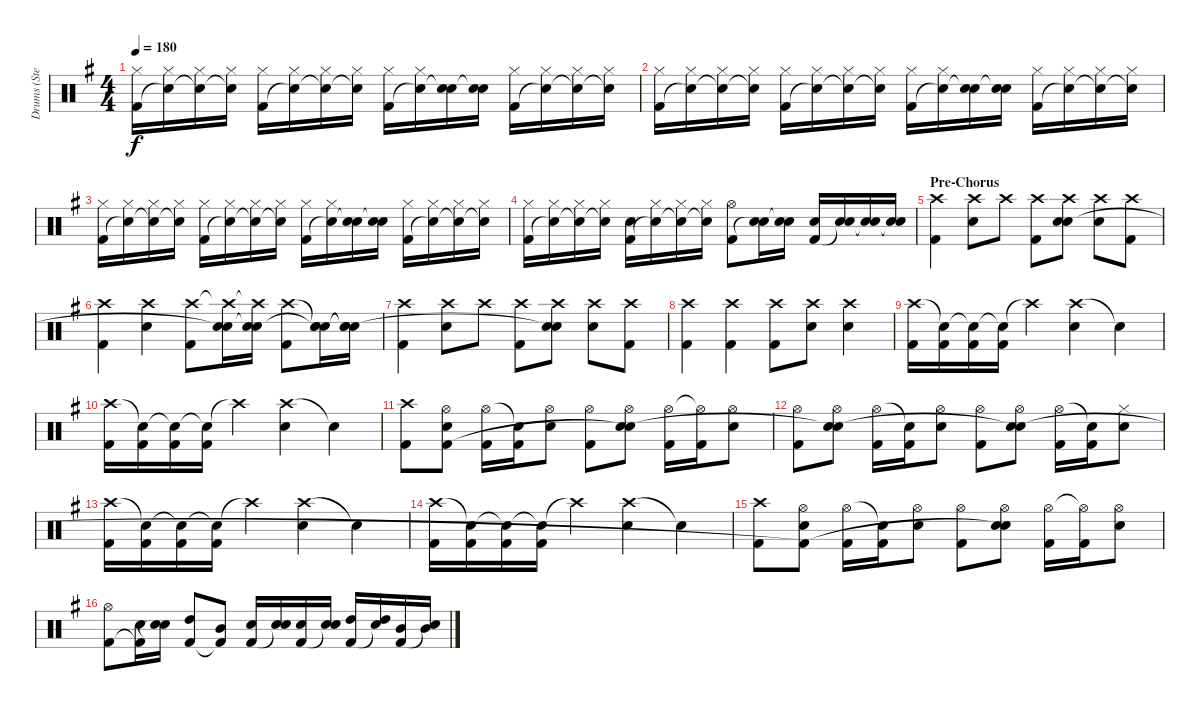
\track ("Drums (Stevo)" "Drums (Ste") {instrument percussion}
\staff {score}
\articulation defaults
\ts (4 4)
\tempo 180
\clef neutral
\ks g
("Hi-Hat (closed)" "Kick (hit) 2").16{dy f} ("Hi-Hat (closed)" "Snare (hit)"{t}).16 ("Hi-Hat (closed)" "Snare (hit)"{t}).16 ("Hi-Hat (closed)" "Snare (hit)"{t}).16 ("Hi-Hat (closed)" "Kick (hit) 2").16 ("Hi-Hat (closed)" "Snare (hit)"{t}).16 ("Hi-Hat (closed)" "Snare (hit)"{t}).16 ("Hi-Hat (closed)" "Snare (hit)"{t}).16 ("Hi-Hat (closed)" "Kick (hit) 2").16 ("Hi-Hat (closed)" "Snare (hit)"{t}).16 ("Snare (hit) 2" "Snare (hit)"{t}).16 ("Snare (hit) 2" "Snare (hit)"{t}).16 ("Hi-Hat (closed)" "Kick (hit) 2").16 ("Hi-Hat (closed)" "Snare (hit)"{t}).16 ("Hi-Hat (closed)" "Snare (hit)"{t}).16 ("Hi-Hat (closed)" "Snare (hit)"{t}).16 |
("Hi-Hat (closed)" "Kick (hit) 2").16 ("Hi-Hat (closed)" "Snare (hit)"{t}).16 ("Hi-Hat (closed)" "Snare (hit)"{t}).16 ("Hi-Hat (closed)" "Snare (hit)"{t}).16 ("Hi-Hat (closed)" "Kick (hit) 2").16 ("Hi-Hat (closed)" "Snare (hit)"{t}).16 ("Hi-Hat (closed)" "Snare (hit)"{t}).16 ("Hi-Hat (closed)" "Snare (hit)"{t}).16 ("Hi-Hat (closed)" "Kick (hit) 2").16 ("Hi-Hat (closed)" "Snare (hit)"{t}).16 ("Snare (hit) 2" "Snare (hit)"{t}).16 ("Snare (hit) 2" "Snare (hit)"{t}).16 ("Hi-Hat (closed)" "Kick (hit) 2").16 ("Hi-Hat (closed)" "Snare (hit)"{t}).16 ("Hi-Hat (closed)" "Snare (hit)"{t}).16 ("Hi-Hat (closed)" "Snare (hit)"{t}).16 |
("Hi-Hat (closed)" "Kick (hit) 2").16 ("Hi-Hat (closed)" "Snare (hit)"{t}).16 ("Hi-Hat (closed)" "Snare (hit)"{t}).16 ("Hi-Hat (closed)" "Snare (hit)"{t}).16 ("Hi-Hat (closed)" "Kick (hit) 2").16 ("Hi-Hat (closed)" "Snare (hit)"{t}).16 ("Hi-Hat (closed)" "Snare (hit)"{t}).16 ("Hi-Hat (closed)" "Snare (hit)"{t}).16 ("Hi-Hat (closed)" "Kick (hit) 2").16 ("Hi-Hat (closed)" "Snare (hit)"{t}).16 ("Snare (hit) 2" "Snare (hit)"{t}).16 ("Snare (hit) 2" "Snare (hit)"{t}).16 ("Hi-Hat (closed)" "Kick (hit) 2").16 ("Hi-Hat (closed)" "Snare (hit)"{t}).16 ("Hi-Hat (closed)" "Snare (hit)"{t}).16 ("Hi-Hat (closed)" "Snare (hit)"{t}).16 |
("Hi-Hat (closed)" "Kick (hit) 2").16 ("Hi-Hat (closed)" "Snare (hit)"{t}).16 ("Hi-Hat (closed)" "Snare (hit)"{t}).16 ("Hi-Hat (closed)" "Snare (hit)"{t}).16 ("Snare (hit) 2" "Kick (hit) 2").16 ("Hi-Hat (closed)" "Snare (hit)"{t}).16 ("Hi-Hat (closed)" "Snare (hit)"{t}).16 ("Hi-Hat (closed)" "Snare (hit)"{t}).16 ("Hi-Hat (open)" "Kick (hit) 2").8 ("Snare (hit) 2" "Snare (hit)"{t}).16 ("Snare (hit) 2" "Snare (hit)"{t}).16 ("Snare (hit) 2" "Kick (hit) 2").16 ("Snare (hit) 2" "Snare (hit)"{t}).16 ("Snare (hit) 2" "Snare (hit)"{t}).16 ("Snare (hit) 2" "Snare (hit)"{t}).16 |
\section ("" "Pre-Chorus")
("Crash high (hit)" "Kick (hit) 2").4 ("Crash high (hit)" "Snare (hit) 2").8 "Crash high (hit)".8 ("Crash high (hit)" "Kick (hit) 2").8 ("Crash high (hit)" "Snare (hit) 2" "Snare (hit)").8 ("Crash high (hit)" "Snare (hit) 2").8 ("Crash high (hit)" "Kick (hit) 2").8 |
("Crash high (hit)" "Kick (hit) 2").4 ("Crash high (hit)" "Snare (hit) 2").4 ("Crash high (hit)" "Kick (hit) 2").8 ("Crash high (hit)"{t} "Snare (hit) 2" "Snare (hit)"{t}).16 ("Crash high (hit)"{t} "Snare (hit) 2" "Snare (hit)"{t}).16 ("Crash high (hit)" "Kick (hit) 2").8 ("Snare (hit)"{t} "Snare (hit) 2" "Snare (hit)"{t}).16 ("Snare (hit)"{t} "Snare (hit) 2" "Snare (hit)"{t}).16 |
("Crash high (hit)" "Kick (hit) 2").4 ("Crash high (hit)" "Snare (hit) 2").8 "Crash high (hit)".8 ("Crash high (hit)" "Kick (hit) 2").8 ("Crash high (hit)" "Snare (hit) 2" "Snare (hit)"{t}).8 ("Crash high (hit)" "Snare (hit) 2").8 ("Crash high (hit)" "Kick (hit) 2").8 |
("Crash high (hit)" "Kick (hit) 2").4 ("Crash high (hit)" "Kick (hit) 2").4 ("Crash high (hit)" "Kick (hit) 2").8 ("Crash high (hit)" "Snare (hit) 2").8 ("Crash high (hit)" "Snare (hit) 2").4 |
("Crash high (hit)" "Kick (hit) 2").16 ("Snare (hit)"{t} "Kick (hit) 2").16 ("Snare (hit)"{t} "Kick (hit) 2").16 ("Snare (hit)"{t} "Kick (hit) 2").16 "Crash high (hit)"{t}.4 ("Crash high (hit)" "Snare (hit) 2").4 "Snare (hit)"{t}.4 |
("Crash high (hit)" "Kick (hit) 2").16 ("Snare (hit)"{t} "Kick (hit) 2").16 ("Snare (hit)"{t} "Kick (hit) 2").16 ("Snare (hit)"{t} "Kick (hit) 2").16 "Crash high (hit)"{t}.4 ("Crash high (hit)" "Snare (hit) 2").4 "Snare (hit)"{t}.4 |
("Crash high (hit)" "Kick (hit) 2").8 ("Hi-Hat (open)" "Snare (hit) 2" "Kick (hit) 2").8 ("Hi-Hat (open)" "Kick (hit) 2").16 ("Snare (hit)"{t} "Kick (hit) 2").16 ("Hi-Hat (open)" "Snare (hit) 2").8 ("Hi-Hat (open)" "Kick (hit) 2").8 ("Hi-Hat (open)" "Snare (hit) 2" "Snare (hit)"{t}).8 ("Hi-Hat (open)" "Kick (hit) 2").16 ("Hi-Hat (open)"{t} "Kick (hit) 2").16 ("Hi-Hat (open)" "Snare (hit) 2").8 |
("Hi-Hat (open)" "Kick (hit) 2").8 ("Hi-Hat (open)" "Snare (hit) 2" "Snare (hit)"{t}).8 ("Hi-Hat (open)" "Kick (hit) 2").16 ("Snare (hit)"{t} "Kick (hit) 2").16 ("Hi-Hat (open)" "Snare (hit) 2").8 ("Hi-Hat (open)" "Kick (hit) 2").8 ("Hi-Hat (open)" "Snare (hit) 2" "Snare (hit)"{t}).8 ("Hi-Hat (open)" "Kick (hit) 2").16 ("Snare (hit)"{t} "Kick (hit) 2").16 ("Hi-Hat (closed)" "Snare (hit) 2").8 |
("Crash high (hit)" "Kick (hit) 2").16 ("Snare (hit)"{t} "Kick (hit) 2").16 ("Snare (hit)"{t} "Kick (hit) 2").16 ("Snare (hit)"{t} "Kick (hit) 2").16 "Crash high (hit)"{t}.4 ("Crash high (hit)" "Snare (hit) 2").4 "Snare (hit)"{t}.4 |
("Crash high (hit)" "Kick (hit) 2").16 ("Snare (hit)"{t} "Kick (hit) 2").16 ("Snare (hit)"{t} "Kick (hit) 2").16 ("Snare (hit)"{t} "Kick (hit) 2").16 "Crash high (hit)"{t}.4 ("Crash high (hit)" "Snare (hit) 2").4 "Snare (hit)"{t}.4 |
("Crash high (hit)" "Kick (hit) 2").8 ("Hi-Hat (open)" "Snare (hit) 2" "Kick (hit) 2"{t}).8 ("Hi-Hat (open)" "Kick (hit) 2").16 ("Snare (hit)"{t} "Kick (hit) 2").16 ("Hi-Hat (open)" "Snare (hit) 2").8 ("Hi-Hat (open)" "Kick (hit) 2").8 ("Hi-Hat (open)" "Snare (hit) 2" "Snare (hit)"{t}).8 ("Hi-Hat (open)" "Kick (hit) 2").16 ("Hi-Hat (open)"{t} "Kick (hit) 2").16 ("Hi-Hat (open)" "Snare (hit) 2").8 |
("Hi-Hat (open)" "Kick (hit) 2").8 ("Snare (hit) 2" "Kick (hit) 2"{t}).16 ("Snare (hit) 2" "Snare (hit)"{t}).16 ("High Tom (hit)" "Kick (hit) 2").8 ("Mid Tom (hit)" "Kick (hit) 2"{t}).8 ("Snare (hit) 2" "Kick (hit) 2").16 ("Snare (hit) 2" "Snare (hit)"{t}).16 ("Snare (hit) 2" "Kick (hit) 2").16 ("Snare (hit) 2" "Snare (hit)"{t}).16 ("High Tom (hit)" "Kick (hit) 2").16 ("High Tom (hit)" "Snare (hit)"{t}).16 ("Mid Tom (hit)" "Kick (hit) 2").16 ("Mid Tom (hit)" "Snare (hit)"{t}).16
